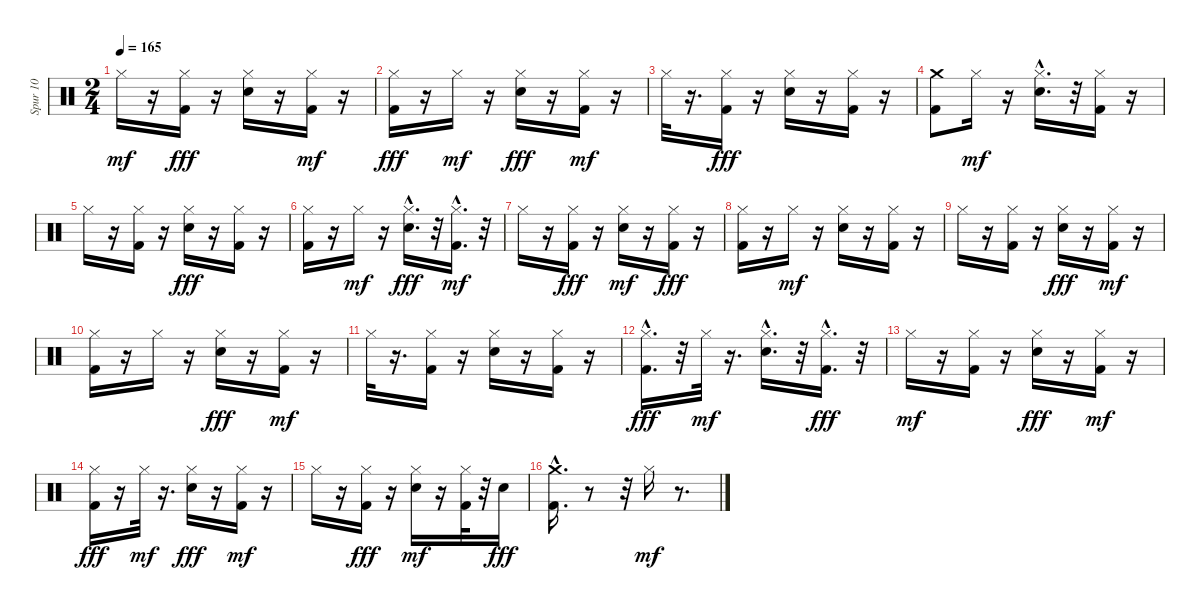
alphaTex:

\track ("Spur 10" "Spur 10") {instrument percussion}
\staff {score}
\articulation defaults
\ts (2 4)
\tempo 165
\clef neutral
\ks c "Hi-Hat (closed)".16{dy mf}
r.16 ("Hi-Hat (closed)" "Kick (hit) 2").16{dy fff} r.16 ("Hi-Hat (closed)" "Electric Snare (hit)").16 r.16 ("Kick (hit) 2" "Hi-Hat (closed)").16{dy mf} r.16 |
("Hi-Hat (closed)" "Kick (hit) 2").16{dy fff} r.16 "Hi-Hat (closed)".16{dy mf} r.16 ("Hi-Hat (closed)" "Electric Snare (hit)").16{dy fff} r.16 ("Kick (hit) 2" "Hi-Hat (closed)").16{dy mf} r.16 |
"Hi-Hat (closed)".32 r.16{d} ("Hi-Hat (closed)" "Kick (hit) 2").16{dy fff} r.16 ("Hi-Hat (closed)" "Electric Snare (hit)").16 r.16 ("Hi-Hat (closed)" "Kick (hit) 2").16 r.16 |
("Crash medium (hit)" "Kick (hit) 2").8 "Hi-Hat (closed)".16{dy mf} r.16 ("Electric Snare (hit)"{hac} "Hi-Hat (closed)").16{d} r.32 ("Kick (hit) 2" "Hi-Hat (closed)").16 r.16 |
"Hi-Hat (closed)".16 r.16 ("Kick (hit) 2" "Hi-Hat (closed)").16 r.16 ("Hi-Hat (closed)" "Electric Snare (hit)").16{dy fff} r.16 ("Hi-Hat (closed)" "Kick (hit) 2").16 r.16 |
("Hi-Hat (closed)" "Kick (hit) 2").16 r.16 "Hi-Hat (closed)".16{dy mf} r.16 ("Hi-Hat (closed)" "Electric Snare (hit)"{hac}).16{d dy fff} r.32 ("Kick (hit) 2"{hac} "Hi-Hat (closed)").16{d dy mf} r.32 |
"Hi-Hat (closed)".16 r.16 ("Hi-Hat (closed)" "Kick (hit) 2").16{dy fff} r.16 ("Electric Snare (hit)" "Hi-Hat (closed)").16{dy mf} r.16 ("Hi-Hat (closed)" "Kick (hit) 2").16{dy fff} r.16 |
("Hi-Hat (closed)" "Kick (hit) 2").16 r.16 "Hi-Hat (closed)".16{dy mf} r.16 ("Electric Snare (hit)" "Hi-Hat (closed)").16 r.16 ("Kick (hit) 2" "Hi-Hat (closed)").16 r.16 |
"Hi-Hat (closed)".16 r.16 ("Kick (hit) 2" "Hi-Hat (closed)").16 r.16 ("Hi-Hat (closed)" "Electric Snare (hit)").16{dy fff} r.16 ("Kick (hit) 2" "Hi-Hat (closed)").16{dy mf} r.16 |
("Kick (hit) 2" "Hi-Hat (closed)").16 r.16 "Hi-Hat (closed)".16 r.16 ("Hi-Hat (closed)" "Electric Snare (hit)").16{dy fff} r.16 ("Kick (hit) 2" "Hi-Hat (closed)").16{dy mf} r.16 |
"Hi-Hat (closed)".32 r.16{d} ("Kick (hit) 2" "Hi-Hat (closed)").16 r.16 ("Electric Snare (hit)" "Hi-Hat (closed)").16 r.16 ("Kick (hit) 2" "Hi-Hat (closed)").16 r.16 |
("Hi-Hat (closed)" "Kick (hit) 2"{hac}).16{d dy fff} r.32 "Hi-Hat (closed)".32{dy mf} r.16{d} ("Electric Snare (hit)"{hac} "Hi-Hat (closed)").16{d} r.32 ("Hi-Hat (closed)" "Kick (hit) 2"{hac}).16{d dy fff} r.32 |
"Hi-Hat (closed)".16{dy mf} r.16 ("Kick (hit) 2" "Hi-Hat (closed)").16 r.16 ("Hi-Hat (closed)" "Electric Snare (hit)").16{dy fff} r.16 ("Kick (hit) 2" "Hi-Hat (closed)").16{dy mf} r.16 |
("Hi-Hat (closed)" "Kick (hit) 2").16{dy fff} r.16 "Hi-Hat (closed)".32{dy mf} r.16{d} ("Hi-Hat (closed)" "Electric Snare (hit)").16{dy fff} r.16 ("Kick (hit) 2" "Hi-Hat (closed)").16{dy mf} r.16 |
"Hi-Hat (closed)".16 r.16 ("Hi-Hat (closed)" "Kick (hit) 2").16{dy fff} r.16 ("Electric Snare (hit)" "Hi-Hat (closed)").16{dy mf} r.16 ("Kick (hit) 2" "Hi-Hat (closed)").32 r.32 "Electric Snare (hit)".16{dy fff} |
("Crash medium (hit)" "Kick (hit) 2"{hac}).16{d} r.8 r.32 "Hi-Hat (closed)".16{dy mf} r.8{d}
